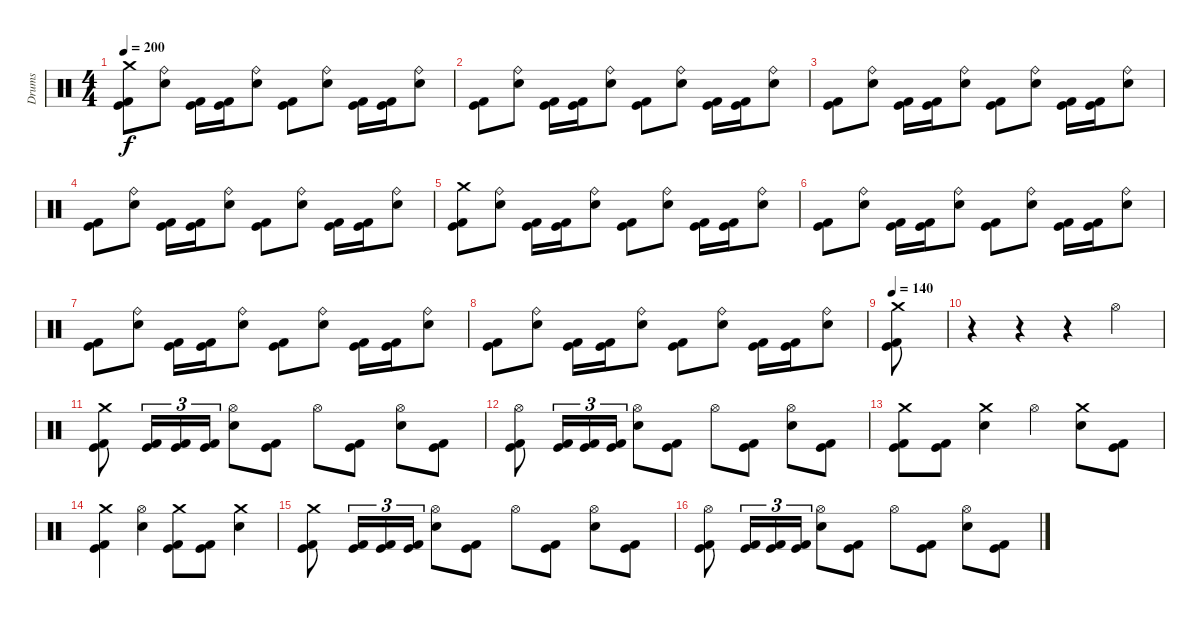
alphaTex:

\track ("Drums" "Drums") {instrument percussion}
\staff {score}
\articulation defaults
\ts (4 4)
\tempo 200
\clef neutral
\ks c
("Crash medium (hit)" "Kick (hit)" "Kick (hit) 2").8{dy f} ("Ride (bell)" "Electric Snare (hit)").8 ("Kick (hit)" "Kick (hit) 2").16 ("Kick (hit)" "Kick (hit) 2").16 ("Ride (bell)" "Electric Snare (hit)").8 ("Kick (hit)" "Kick (hit) 2").8 ("Ride (bell)" "Electric Snare (hit)").8 ("Kick (hit)" "Kick (hit) 2").16 ("Kick (hit)" "Kick (hit) 2").16 ("Ride (bell)" "Electric Snare (hit)").8 |
("Kick (hit)" "Kick (hit) 2").8 ("Ride (bell)" "Electric Snare (hit)").8 ("Kick (hit)" "Kick (hit) 2").16 ("Kick (hit)" "Kick (hit) 2").16 ("Ride (bell)" "Electric Snare (hit)").8 ("Kick (hit)" "Kick (hit) 2").8 ("Ride (bell)" "Electric Snare (hit)").8 ("Kick (hit)" "Kick (hit) 2").16 ("Kick (hit)" "Kick (hit) 2").16 ("Ride (bell)" "Electric Snare (hit)").8 |
("Kick (hit)" "Kick (hit) 2").8 ("Ride (bell)" "Electric Snare (hit)").8 ("Kick (hit)" "Kick (hit) 2").16 ("Kick (hit)" "Kick (hit) 2").16 ("Ride (bell)" "Electric Snare (hit)").8 ("Kick (hit)" "Kick (hit) 2").8 ("Ride (bell)" "Electric Snare (hit)").8 ("Kick (hit)" "Kick (hit) 2").16 ("Kick (hit)" "Kick (hit) 2").16 ("Ride (bell)" "Electric Snare (hit)").8 |
("Kick (hit)" "Kick (hit) 2").8 ("Ride (bell)" "Electric Snare (hit)").8 ("Kick (hit)" "Kick (hit) 2").16 ("Kick (hit)" "Kick (hit) 2").16 ("Ride (bell)" "Electric Snare (hit)").8 ("Kick (hit)" "Kick (hit) 2").8 ("Ride (bell)" "Electric Snare (hit)").8 ("Kick (hit)" "Kick (hit) 2").16 ("Kick (hit)" "Kick (hit) 2").16 ("Ride (bell)" "Electric Snare (hit)").8 |
("Crash medium (hit)" "Kick (hit)" "Kick (hit) 2").8 ("Ride (bell)" "Electric Snare (hit)").8 ("Kick (hit)" "Kick (hit) 2").16 ("Kick (hit)" "Kick (hit) 2").16 ("Ride (bell)" "Electric Snare (hit)").8 ("Kick (hit)" "Kick (hit) 2").8 ("Ride (bell)" "Electric Snare (hit)").8 ("Kick (hit)" "Kick (hit) 2").16 ("Kick (hit)" "Kick (hit) 2").16 ("Ride (bell)" "Electric Snare (hit)").8 |
("Kick (hit)" "Kick (hit) 2").8 ("Ride (bell)" "Electric Snare (hit)").8 ("Kick (hit)" "Kick (hit) 2").16 ("Kick (hit)" "Kick (hit) 2").16 ("Ride (bell)" "Electric Snare (hit)").8 ("Kick (hit)" "Kick (hit) 2").8 ("Ride (bell)" "Electric Snare (hit)").8 ("Kick (hit)" "Kick (hit) 2").16 ("Kick (hit)" "Kick (hit) 2").16 ("Ride (bell)" "Electric Snare (hit)").8 |
("Kick (hit)" "Kick (hit) 2").8 ("Ride (bell)" "Electric Snare (hit)").8 ("Kick (hit)" "Kick (hit) 2").16 ("Kick (hit)" "Kick (hit) 2").16 ("Ride (bell)" "Electric Snare (hit)").8 ("Kick (hit)" "Kick (hit) 2").8 ("Ride (bell)" "Electric Snare (hit)").8 ("Kick (hit)" "Kick (hit) 2").16 ("Kick (hit)" "Kick (hit) 2").16 ("Ride (bell)" "Electric Snare (hit)").8 |
("Kick (hit)" "Kick (hit) 2").8 ("Ride (bell)" "Electric Snare (hit)").8 ("Kick (hit)" "Kick (hit) 2").16 ("Kick (hit)" "Kick (hit) 2").16 ("Ride (bell)" "Electric Snare (hit)").8 ("Kick (hit)" "Kick (hit) 2").8 ("Ride (bell)" "Electric Snare (hit)").8 ("Kick (hit)" "Kick (hit) 2").16 ("Kick (hit)" "Kick (hit) 2").16 ("Ride (bell)" "Electric Snare (hit)").8 |
\tempo 140
("Crash medium (hit)" "Kick (hit)" "Kick (hit) 2").8 |
r.4 r.4 r.4 "Hi-Hat (open)".4 |
("Crash medium (hit)" "Kick (hit)" "Kick (hit) 2").8 ("Kick (hit)" "Kick (hit) 2").16{tu (3 2)} ("Kick (hit)" "Kick (hit) 2").16{tu (3 2)} ("Kick (hit)" "Kick (hit) 2").16{tu (3 2)} ("Hi-Hat (open)" "Electric Snare (hit)").8 ("Kick (hit)" "Kick (hit) 2").8 "Hi-Hat (open)".8 ("Kick (hit)" "Kick (hit) 2").8 ("Hi-Hat (open)" "Electric Snare (hit)").8 ("Kick (hit)" "Kick (hit) 2").8 |
("Hi-Hat (open)" "Kick (hit)" "Kick (hit) 2").8 ("Kick (hit)" "Kick (hit) 2").16{tu (3 2)} ("Kick (hit)" "Kick (hit) 2").16{tu (3 2)} ("Kick (hit)" "Kick (hit) 2").16{tu (3 2)} ("Hi-Hat (open)" "Electric Snare (hit)").8 ("Kick (hit)" "Kick (hit) 2").8 "Hi-Hat (open)".8 ("Kick (hit)" "Kick (hit) 2").8 ("Hi-Hat (open)" "Electric Snare (hit)").8 ("Kick (hit)" "Kick (hit) 2").8 |
("Crash medium (hit)" "Kick (hit)" "Kick (hit) 2").8 ("Kick (hit)" "Kick (hit) 2").8 ("Crash medium (hit)" "Electric Snare (hit)").4 "Hi-Hat (open)".4 ("Crash medium (hit)" "Electric Snare (hit)").8 ("Kick (hit)" "Kick (hit) 2").8 |
("Crash medium (hit)" "Kick (hit)" "Kick (hit) 2").4 ("Hi-Hat (open)" "Electric Snare (hit)").4 ("Crash medium (hit)" "Kick (hit)" "Kick (hit) 2").8 ("Kick (hit)" "Kick (hit) 2").8 ("Crash medium (hit)" "Electric Snare (hit)").4 |
("Crash medium (hit)" "Kick (hit)" "Kick (hit) 2").8 ("Kick (hit)" "Kick (hit) 2").16{tu (3 2)} ("Kick (hit)" "Kick (hit) 2").16{tu (3 2)} ("Kick (hit)" "Kick (hit) 2").16{tu (3 2)} ("Hi-Hat (open)" "Electric Snare (hit)").8 ("Kick (hit)" "Kick (hit) 2").8 "Hi-Hat (open)".8 ("Kick (hit)" "Kick (hit) 2").8 ("Hi-Hat (open)" "Electric Snare (hit)").8 ("Kick (hit)" "Kick (hit) 2").8 |
("Hi-Hat (open)" "Kick (hit)" "Kick (hit) 2").8 ("Kick (hit)" "Kick (hit) 2").16{tu (3 2)} ("Kick (hit)" "Kick (hit) 2").16{tu (3 2)} ("Kick (hit)" "Kick (hit) 2").16{tu (3 2)} ("Hi-Hat (open)" "Electric Snare (hit)").8 ("Kick (hit)" "Kick (hit) 2").8 "Hi-Hat (open)".8 ("Kick (hit)" "Kick (hit) 2").8 ("Hi-Hat (open)" "Electric Snare (hit)").8 ("Kick (hit)" "Kick (hit) 2").8
